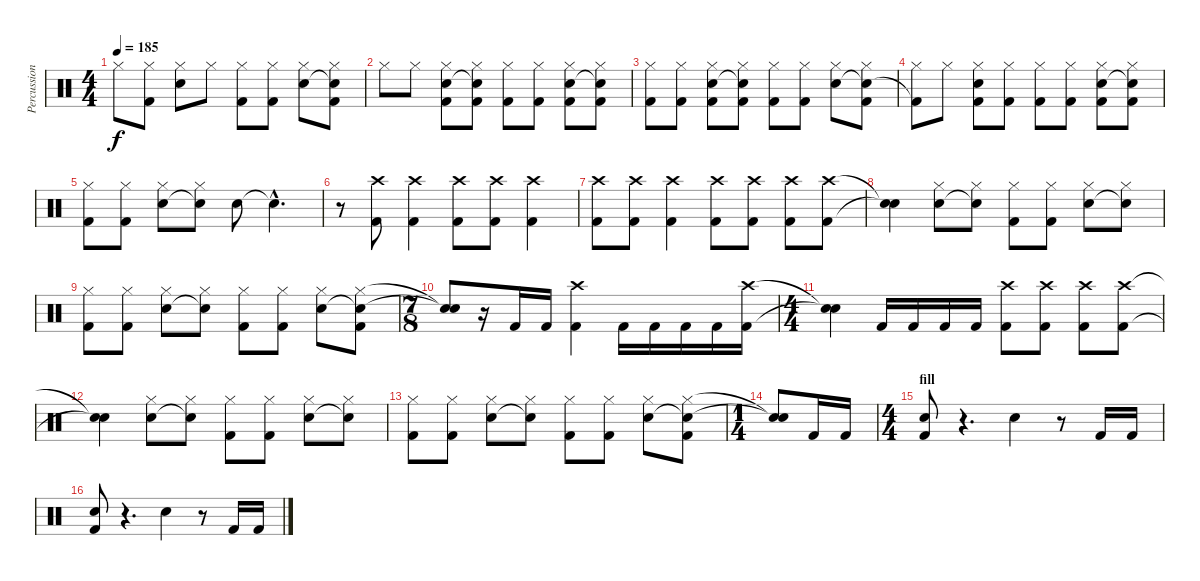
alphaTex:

\track ("Percussion" "Percussion") {instrument percussion}
\staff {score}
\articulation defaults
\ts (4 4)
\tempo 185
\clef neutral
\ks c "Hi-Hat (closed)".8{dy f}
("Hi-Hat (closed)" "Kick (hit) 2"{t}).8 ("Hi-Hat (closed)" "Snare (hit) 2").8 "Hi-Hat (closed)".8 ("Hi-Hat (closed)" "Kick (hit) 2").8 ("Hi-Hat (closed)" "Kick (hit) 2").8 ("Hi-Hat (closed)" "Snare (hit) 2").8 ("Hi-Hat (closed)" "Snare (hit)"{t} "Kick (hit) 2").8 |
"Hi-Hat (closed)".8 "Hi-Hat (closed)".8 ("Hi-Hat (closed)" "Snare (hit) 2" "Kick (hit) 2").8 ("Hi-Hat (closed)" "Snare (hit)"{t} "Kick (hit) 2").8 ("Hi-Hat (closed)" "Kick (hit) 2").8 ("Hi-Hat (closed)" "Kick (hit) 2").8 ("Hi-Hat (closed)" "Snare (hit) 2" "Kick (hit) 2").8 ("Hi-Hat (closed)" "Snare (hit)"{t} "Kick (hit) 2").8 |
("Hi-Hat (closed)" "Kick (hit) 2").8 ("Hi-Hat (closed)" "Kick (hit) 2").8 ("Hi-Hat (closed)" "Snare (hit) 2" "Kick (hit) 2").8 ("Hi-Hat (closed)" "Snare (hit)"{t} "Kick (hit) 2").8 ("Hi-Hat (closed)" "Kick (hit) 2").8 ("Hi-Hat (closed)" "Kick (hit) 2").8 ("Hi-Hat (closed)" "Snare (hit) 2").8 ("Hi-Hat (closed)" "Snare (hit)"{t} "Kick (hit) 2").8 |
("Hi-Hat (closed)" "Kick (hit) 2"{t}).8 "Hi-Hat (closed)".8 ("Hi-Hat (closed)" "Snare (hit) 2" "Kick (hit) 2").8 ("Hi-Hat (closed)" "Kick (hit) 2").8 ("Hi-Hat (closed)" "Kick (hit) 2").8 ("Hi-Hat (closed)" "Kick (hit) 2").8 ("Hi-Hat (closed)" "Snare (hit) 2" "Kick (hit) 2").8 ("Hi-Hat (closed)" "Snare (hit)"{t} "Kick (hit) 2").8 |
("Hi-Hat (closed)" "Kick (hit) 2").8 ("Hi-Hat (closed)" "Kick (hit) 2").8 ("Hi-Hat (closed)" "Snare (hit) 2").8 ("Hi-Hat (closed)" "Snare (hit)"{t}).8 "Snare (hit) 2".8 "Snare (hit)"{hac t}.4{d} |
r.8 ("Crash high (hit)" "Kick (hit) 2").8 ("Crash high (hit)" "Kick (hit) 2").4 ("Crash high (hit)" "Kick (hit) 2").8 ("Crash high (hit)" "Kick (hit) 2").8 ("Crash high (hit)" "Kick (hit) 2").4 |
("Crash high (hit)" "Kick (hit) 2").8 ("Crash high (hit)" "Kick (hit) 2").8 ("Crash high (hit)" "Kick (hit) 2").4 ("Crash high (hit)" "Kick (hit) 2").8 ("Crash high (hit)" "Kick (hit) 2").8 ("Crash high (hit)" "Kick (hit) 2").8 ("Crash high (hit)" "Kick (hit) 2").8 |
("Snare (hit)"{t} "Snare (hit)"{t}).4 ("Hi-Hat (closed)" "Snare (hit) 2").8 ("Hi-Hat (closed)" "Snare (hit) 2"{t}).8 ("Hi-Hat (closed)" "Kick (hit) 2").8 ("Hi-Hat (closed)" "Kick (hit) 2").8 ("Hi-Hat (closed)" "Snare (hit) 2").8 ("Hi-Hat (closed)" "Snare (hit)"{t}).8 |
("Hi-Hat (closed)" "Kick (hit) 2").8 ("Hi-Hat (closed)" "Kick (hit) 2").8 ("Hi-Hat (closed)" "Snare (hit) 2").8 ("Hi-Hat (closed)" "Snare (hit)"{t}).8 ("Hi-Hat (closed)" "Kick (hit) 2").8 ("Hi-Hat (closed)" "Kick (hit) 2").8 ("Hi-Hat (closed)" "Snare (hit) 2").8 ("Hi-Hat (closed)" "Snare (hit)"{t} "Kick (hit) 2").8 |
\ts (7 8)
("Snare (hit)"{t} "Snare (hit)"{t}).8 r.16 "Kick (hit) 2".16 "Kick (hit) 2".16 ("Crash high (hit)" "Kick (hit) 2").4 "Kick (hit) 2".16 "Kick (hit) 2".16 "Kick (hit) 2".16 "Kick (hit) 2".16 ("Crash high (hit)" "Kick (hit) 2").16 |
\ts (4 4)
("Snare (hit)"{t} "Snare (hit)"{t}).4 "Kick (hit) 2".16 "Kick (hit) 2".16 "Kick (hit) 2".16 "Kick (hit) 2".16 ("Crash high (hit)" "Kick (hit) 2").8 ("Crash high (hit)" "Kick (hit) 2").8 ("Crash high (hit)" "Kick (hit) 2").8 ("Crash high (hit)" "Kick (hit) 2").8 |
("Snare (hit)"{t} "Snare (hit)"{t}).4 ("Hi-Hat (closed)" "Snare (hit) 2").8 ("Hi-Hat (closed)" "Snare (hit) 2"{t}).8 ("Hi-Hat (closed)" "Kick (hit) 2").8 ("Hi-Hat (closed)" "Kick (hit) 2").8 ("Hi-Hat (closed)" "Snare (hit) 2").8 ("Hi-Hat (closed)" "Snare (hit)"{t}).8 |
("Hi-Hat (closed)" "Kick (hit) 2").8 ("Hi-Hat (closed)" "Kick (hit) 2").8 ("Hi-Hat (closed)" "Snare (hit) 2").8 ("Hi-Hat (closed)" "Snare (hit)"{t}).8 ("Hi-Hat (closed)" "Kick (hit) 2").8 ("Hi-Hat (closed)" "Kick (hit) 2").8 ("Hi-Hat (closed)" "Snare (hit) 2").8 ("Hi-Hat (closed)" "Snare (hit)"{t} "Kick (hit) 2").8 |
\ts (1 4)
("Snare (hit)"{t} "Snare (hit)"{t}).8 "Kick (hit) 2".16 "Kick (hit) 2".16 |
\ts (4 4)
\section ("" "fill")
("Snare (hit) 2" "Kick (hit) 2").8 r.4{d} "Snare (hit) 2".4 r.8 "Kick (hit) 2".16 "Kick (hit) 2".16 |
("Snare (hit) 2" "Kick (hit) 2").8 r.4{d} "Snare (hit) 2".4 r.8 "Kick (hit) 2".16 "Kick (hit) 2".16
